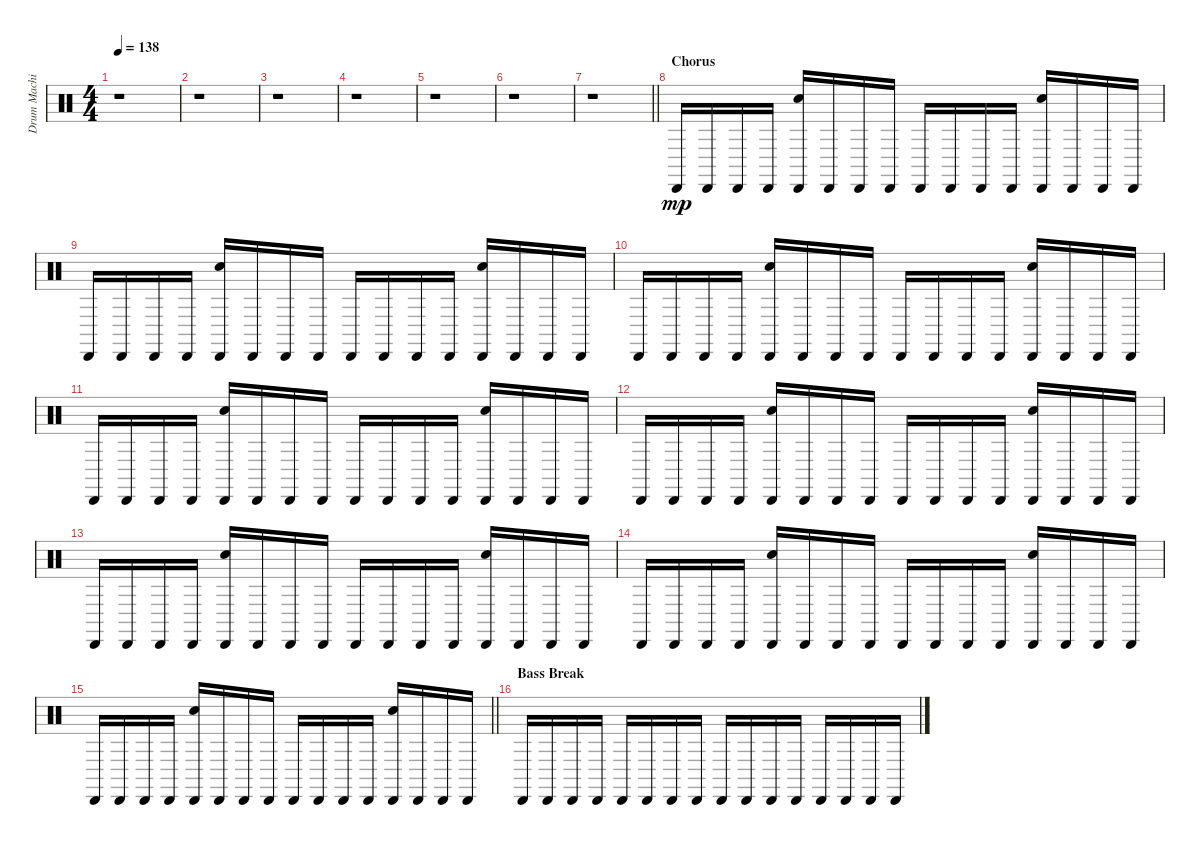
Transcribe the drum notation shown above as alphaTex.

\track ("Drum Machine" "Drum Machi") {instrument percussion}
\staff {score}
\articulation defaults
\ts (4 4)
\tempo 138
\clef neutral
\ks c
r.1{dy mp} |
r.1 |
r.1 |
r.1 |
r.1 |
r.1 |
\barLineRight lightlight
r.1 |
\section ("" "Chorus")
"Cabasa (hit)".16 "Cabasa (hit)".16 "Cabasa (hit)".16 "Cabasa (hit)".16 ("Cabasa (hit)" "Hand Clap (hit)").16 "Cabasa (hit)".16 "Cabasa (hit)".16 "Cabasa (hit)".16 "Cabasa (hit)".16 "Cabasa (hit)".16 "Cabasa (hit)".16 "Cabasa (hit)".16 ("Cabasa (hit)" "Hand Clap (hit)").16 "Cabasa (hit)".16 "Cabasa (hit)".16 "Cabasa (hit)".16 |
"Cabasa (hit)".16 "Cabasa (hit)".16 "Cabasa (hit)".16 "Cabasa (hit)".16 ("Cabasa (hit)" "Hand Clap (hit)").16 "Cabasa (hit)".16 "Cabasa (hit)".16 "Cabasa (hit)".16 "Cabasa (hit)".16 "Cabasa (hit)".16 "Cabasa (hit)".16 "Cabasa (hit)".16 ("Cabasa (hit)" "Hand Clap (hit)").16 "Cabasa (hit)".16 "Cabasa (hit)".16 "Cabasa (hit)".16 |
"Cabasa (hit)".16 "Cabasa (hit)".16 "Cabasa (hit)".16 "Cabasa (hit)".16 ("Cabasa (hit)" "Hand Clap (hit)").16 "Cabasa (hit)".16 "Cabasa (hit)".16 "Cabasa (hit)".16 "Cabasa (hit)".16 "Cabasa (hit)".16 "Cabasa (hit)".16 "Cabasa (hit)".16 ("Cabasa (hit)" "Hand Clap (hit)").16 "Cabasa (hit)".16 "Cabasa (hit)".16 "Cabasa (hit)".16 |
"Cabasa (hit)".16 "Cabasa (hit)".16 "Cabasa (hit)".16 "Cabasa (hit)".16 ("Cabasa (hit)" "Hand Clap (hit)").16 "Cabasa (hit)".16 "Cabasa (hit)".16 "Cabasa (hit)".16 "Cabasa (hit)".16 "Cabasa (hit)".16 "Cabasa (hit)".16 "Cabasa (hit)".16 ("Cabasa (hit)" "Hand Clap (hit)").16 "Cabasa (hit)".16 "Cabasa (hit)".16 "Cabasa (hit)".16 |
"Cabasa (hit)".16 "Cabasa (hit)".16 "Cabasa (hit)".16 "Cabasa (hit)".16 ("Cabasa (hit)" "Hand Clap (hit)").16 "Cabasa (hit)".16 "Cabasa (hit)".16 "Cabasa (hit)".16 "Cabasa (hit)".16 "Cabasa (hit)".16 "Cabasa (hit)".16 "Cabasa (hit)".16 ("Cabasa (hit)" "Hand Clap (hit)").16 "Cabasa (hit)".16 "Cabasa (hit)".16 "Cabasa (hit)".16 |
"Cabasa (hit)".16 "Cabasa (hit)".16 "Cabasa (hit)".16 "Cabasa (hit)".16 ("Cabasa (hit)" "Hand Clap (hit)").16 "Cabasa (hit)".16 "Cabasa (hit)".16 "Cabasa (hit)".16 "Cabasa (hit)".16 "Cabasa (hit)".16 "Cabasa (hit)".16 "Cabasa (hit)".16 ("Cabasa (hit)" "Hand Clap (hit)").16 "Cabasa (hit)".16 "Cabasa (hit)".16 "Cabasa (hit)".16 |
"Cabasa (hit)".16 "Cabasa (hit)".16 "Cabasa (hit)".16 "Cabasa (hit)".16 ("Cabasa (hit)" "Hand Clap (hit)").16 "Cabasa (hit)".16 "Cabasa (hit)".16 "Cabasa (hit)".16 "Cabasa (hit)".16 "Cabasa (hit)".16 "Cabasa (hit)".16 "Cabasa (hit)".16 ("Cabasa (hit)" "Hand Clap (hit)").16 "Cabasa (hit)".16 "Cabasa (hit)".16 "Cabasa (hit)".16 |
\barLineRight lightlight "Cabasa (hit)".16 "Cabasa (hit)".16 "Cabasa (hit)".16 "Cabasa (hit)".16
("Cabasa (hit)" "Hand Clap (hit)").16 "Cabasa (hit)".16 "Cabasa (hit)".16 "Cabasa (hit)".16 "Cabasa (hit)".16 "Cabasa (hit)".16 "Cabasa (hit)".16 "Cabasa (hit)".16 ("Cabasa (hit)" "Hand Clap (hit)").16 "Cabasa (hit)".16 "Cabasa (hit)".16 "Cabasa (hit)".16 |
\section ("" "Bass Break")
"Cabasa (hit)".16 "Cabasa (hit)".16 "Cabasa (hit)".16 "Cabasa (hit)".16 "Cabasa (hit)".16 "Cabasa (hit)".16 "Cabasa (hit)".16 "Cabasa (hit)".16 "Cabasa (hit)".16 "Cabasa (hit)".16 "Cabasa (hit)".16 "Cabasa (hit)".16 "Cabasa (hit)".16 "Cabasa (hit)".16 "Cabasa (hit)".16 "Cabasa (hit)".16
